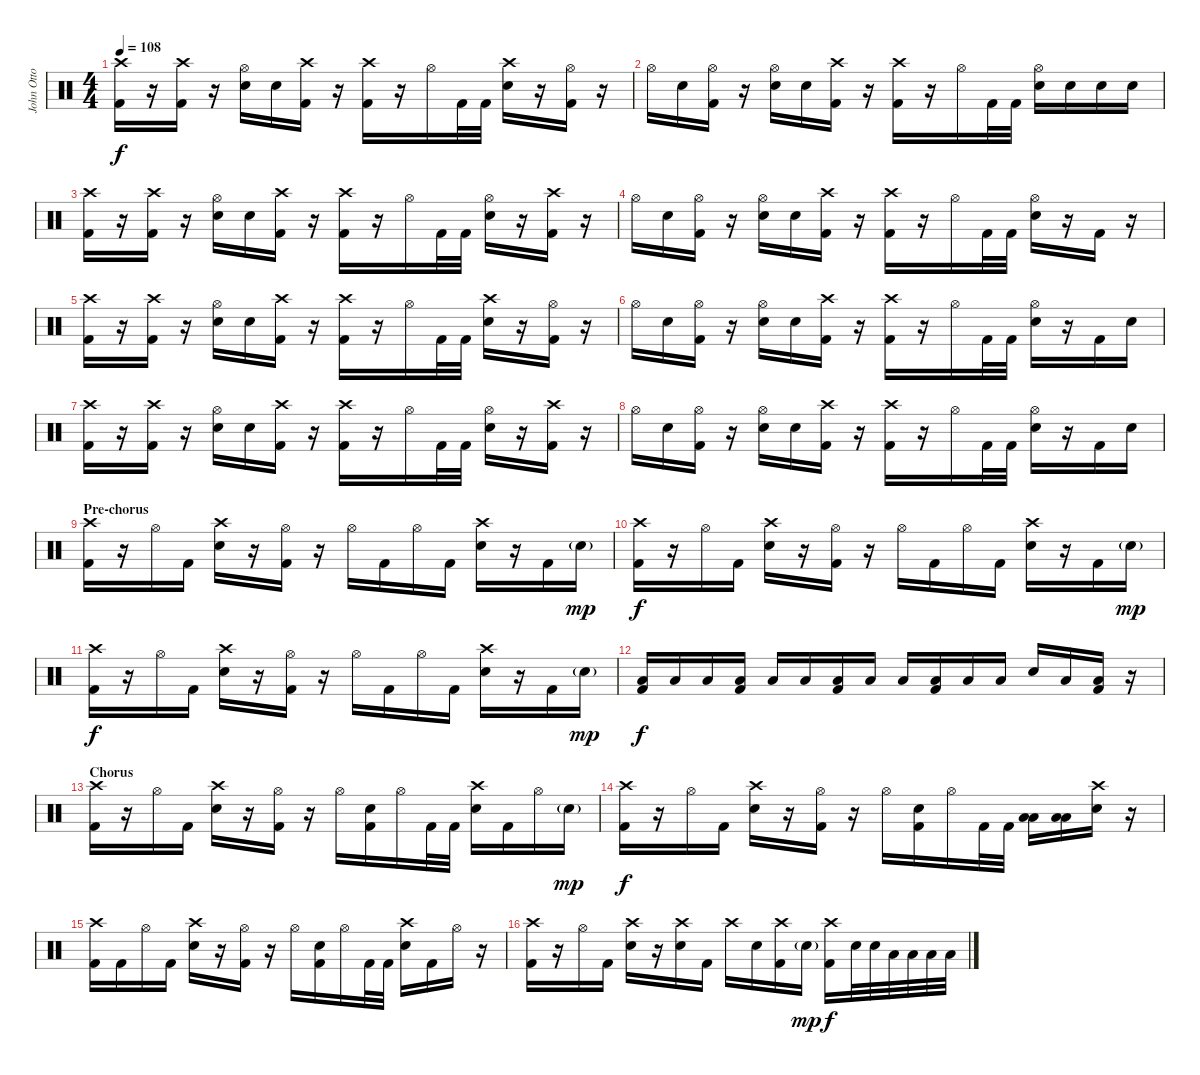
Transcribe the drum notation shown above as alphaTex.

\track ("John Otto" "John Otto") {instrument percussion}
\staff {score}
\articulation defaults
\ts (4 4)
\tempo 108
\clef neutral
\ks c
("Crash high (hit)" "Kick (hit) 2").16{dy f} r.16 ("Crash high (hit)" "Kick (hit) 2").16 r.16 ("Hi-Hat (open)" "Snare (hit) 2").16 "Snare (hit) 2".16 ("Crash high (hit)" "Kick (hit) 2").16 r.16 ("Crash high (hit)" "Kick (hit) 2").16 r.16 "Hi-Hat (open)".16 "Kick (hit) 2".32 "Kick (hit) 2".32 ("Crash high (hit)" "Snare (hit) 2").16 r.16 ("Hi-Hat (open)" "Kick (hit) 2").16 r.16 |
"Hi-Hat (open)".16 "Snare (hit) 2".16 ("Hi-Hat (open)" "Kick (hit) 2").16 r.16 ("Hi-Hat (open)" "Snare (hit) 2").16 "Snare (hit) 2".16 ("Crash high (hit)" "Kick (hit) 2").16 r.16 ("Crash high (hit)" "Kick (hit) 2").16 r.16 "Hi-Hat (open)".16 "Kick (hit) 2".32 "Kick (hit) 2".32 ("Hi-Hat (open)" "Snare (hit) 2").16 "Snare (hit) 2".16 "Snare (hit) 2".16 "Snare (hit) 2".16 |
("Crash high (hit)" "Kick (hit) 2").16 r.16 ("Crash high (hit)" "Kick (hit) 2").16 r.16 ("Hi-Hat (open)" "Snare (hit) 2").16 "Snare (hit) 2".16 ("Crash high (hit)" "Kick (hit) 2").16 r.16 ("Crash high (hit)" "Kick (hit) 2").16 r.16 "Hi-Hat (open)".16 "Kick (hit) 2".32 "Kick (hit) 2".32 ("Hi-Hat (open)" "Snare (hit) 2").16 r.16 ("Crash high (hit)" "Kick (hit) 2").16 r.16 |
"Hi-Hat (open)".16 "Snare (hit) 2".16 ("Hi-Hat (open)" "Kick (hit) 2").16 r.16 ("Hi-Hat (open)" "Snare (hit) 2").16 "Snare (hit) 2".16 ("Crash high (hit)" "Kick (hit) 2").16 r.16 ("Crash high (hit)" "Kick (hit) 2").16 r.16 "Hi-Hat (open)".16 "Kick (hit) 2".32 "Kick (hit) 2".32 ("Hi-Hat (open)" "Snare (hit) 2").16 r.16 "Kick (hit) 2".16 r.16 |
("Crash high (hit)" "Kick (hit) 2").16 r.16 ("Crash high (hit)" "Kick (hit) 2").16 r.16 ("Hi-Hat (open)" "Snare (hit) 2").16 "Snare (hit) 2".16 ("Crash high (hit)" "Kick (hit) 2").16 r.16 ("Crash high (hit)" "Kick (hit) 2").16 r.16 "Hi-Hat (open)".16 "Kick (hit) 2".32 "Kick (hit) 2".32 ("Crash high (hit)" "Snare (hit) 2").16 r.16 ("Hi-Hat (open)" "Kick (hit) 2").16 r.16 |
"Hi-Hat (open)".16 "Snare (hit) 2".16 ("Hi-Hat (open)" "Kick (hit) 2").16 r.16 ("Hi-Hat (open)" "Snare (hit) 2").16 "Snare (hit) 2".16 ("Crash high (hit)" "Kick (hit) 2").16 r.16 ("Crash high (hit)" "Kick (hit) 2").16 r.16 "Hi-Hat (open)".16 "Kick (hit) 2".32 "Kick (hit) 2".32 ("Hi-Hat (open)" "Snare (hit) 2").16 r.16 "Kick (hit) 2".16 "Snare (hit) 2".16 |
("Crash high (hit)" "Kick (hit) 2").16 r.16 ("Crash high (hit)" "Kick (hit) 2").16 r.16 ("Hi-Hat (open)" "Snare (hit) 2").16 "Snare (hit) 2".16 ("Crash high (hit)" "Kick (hit) 2").16 r.16 ("Crash high (hit)" "Kick (hit) 2").16 r.16 "Hi-Hat (open)".16 "Kick (hit) 2".32 "Kick (hit) 2".32 ("Hi-Hat (open)" "Snare (hit) 2").16 r.16 ("Crash high (hit)" "Kick (hit) 2").16 r.16 |
"Hi-Hat (open)".16 "Snare (hit) 2".16 ("Hi-Hat (open)" "Kick (hit) 2").16 r.16 ("Hi-Hat (open)" "Snare (hit) 2").16 "Snare (hit) 2".16 ("Crash high (hit)" "Kick (hit) 2").16 r.16 ("Crash high (hit)" "Kick (hit) 2").16 r.16 "Hi-Hat (open)".16 "Kick (hit) 2".32 "Kick (hit) 2".32 ("Hi-Hat (open)" "Snare (hit) 2").16 r.16 "Kick (hit) 2".16 "Snare (hit) 2".16 |
\section ("" "Pre-chorus")
("Crash high (hit)" "Kick (hit) 2").16 r.16 "Hi-Hat (open)".16 "Kick (hit) 2".16 ("Crash high (hit)" "Snare (hit) 2").16 r.16 ("Hi-Hat (open)" "Kick (hit) 2").16 r.16 "Hi-Hat (open)".16 "Kick (hit) 2".16 "Hi-Hat (open)".16 "Kick (hit) 2".16 ("Crash high (hit)" "Snare (hit) 2").16 r.16 "Kick (hit) 2".16 "Snare (hit) 2"{g}.16{dy mp} |
("Crash high (hit)" "Kick (hit) 2").16{dy f} r.16 "Hi-Hat (open)".16 "Kick (hit) 2".16 ("Crash high (hit)" "Snare (hit) 2").16 r.16 ("Hi-Hat (open)" "Kick (hit) 2").16 r.16 "Hi-Hat (open)".16 "Kick (hit) 2".16 "Hi-Hat (open)".16 "Kick (hit) 2".16 ("Crash high (hit)" "Snare (hit) 2").16 r.16 "Kick (hit) 2".16 "Snare (hit) 2"{g}.16{dy mp} |
("Crash high (hit)" "Kick (hit) 2").16{dy f} r.16 "Hi-Hat (open)".16 "Kick (hit) 2".16 ("Crash high (hit)" "Snare (hit) 2").16 r.16 ("Hi-Hat (open)" "Kick (hit) 2").16 r.16 "Hi-Hat (open)".16 "Kick (hit) 2".16 "Hi-Hat (open)".16 "Kick (hit) 2".16 ("Crash high (hit)" "Snare (hit) 2").16 r.16 "Kick (hit) 2".16 "Snare (hit) 2"{g}.16{dy mp} |
("Low Floor Tom (hit)" "Kick (hit) 2").16{dy f} "Low Tom (hit)".16 "Low Tom (hit)".16 ("Low Floor Tom (hit)" "Kick (hit) 2").16 "Low Tom (hit)".16 "Low Tom (hit)".16 ("Low Floor Tom (hit)" "Kick (hit) 2").16 "Low Tom (hit)".16 "Low Tom (hit)".16 ("Low Floor Tom (hit)" "Kick (hit) 2").16 "Low Tom (hit)".16 "Low Tom (hit)".16 "Snare (hit) 2".16 "Low Floor Tom (hit)".16 ("Low Tom (hit)" "Kick (hit) 2").16 r.16 |
\section ("" "Chorus")
("Crash high (hit)" "Kick (hit) 2").16 r.16 "Hi-Hat (open)".16 "Kick (hit) 2".16 ("Crash high (hit)" "Snare (hit) 2").16 r.16 ("Hi-Hat (open)" "Kick (hit) 2").16 r.16 "Hi-Hat (open)".16 ("Snare (hit) 2" "Kick (hit) 2").16 "Hi-Hat (open)".16 "Kick (hit) 2".32 "Kick (hit) 2".32 ("Crash high (hit)" "Snare (hit) 2").16 "Kick (hit) 2".16 "Hi-Hat (open)".16 "Snare (hit) 2"{g}.16{dy mp} |
("Crash high (hit)" "Kick (hit) 2").16{dy f} r.16 "Hi-Hat (open)".16 "Kick (hit) 2".16 ("Crash high (hit)" "Snare (hit) 2").16 r.16 ("Hi-Hat (open)" "Kick (hit) 2").16 r.16 "Hi-Hat (open)".16 ("Snare (hit) 2" "Kick (hit) 2").16 "Hi-Hat (open)".16 "Kick (hit) 2".32 "Kick (hit) 2".32 ("Low Floor Tom (hit)" "Low Tom (hit)").16 ("Low Floor Tom (hit)" "Low Tom (hit)").16 ("Crash high (hit)" "Snare (hit) 2").16 r.16 |
("Crash high (hit)" "Kick (hit) 2").16 "Kick (hit) 2".16 "Hi-Hat (open)".16 "Kick (hit) 2".16 ("Crash high (hit)" "Snare (hit) 2").16 r.16 ("Hi-Hat (open)" "Kick (hit) 2").16 r.16 "Hi-Hat (open)".16 ("Snare (hit) 2" "Kick (hit) 2").16 "Hi-Hat (open)".16 "Kick (hit) 2".32 "Kick (hit) 2".32 ("Crash high (hit)" "Snare (hit) 2").16 "Kick (hit) 2".16 "Hi-Hat (open)".16 r.16 |
("Crash high (hit)" "Kick (hit) 2").16 r.16 "Hi-Hat (open)".16 "Kick (hit) 2".16 ("Crash high (hit)" "Snare (hit) 2").16 r.16 ("Crash high (hit)" "Snare (hit) 2").16 "Kick (hit) 2".16 "Crash high (hit)".16 "Snare (hit) 2".16 ("Crash high (hit)" "Kick (hit) 2").16 "Snare (hit) 2"{g}.16{dy mp} ("Crash high (hit)" "Kick (hit) 2").16{dy f} "Snare (hit) 2".32 "Snare (hit) 2".32 "Low Floor Tom (hit)".32 "Low Floor Tom (hit)".32 "Low Floor Tom (hit)".32 "Low Floor Tom (hit)".32
